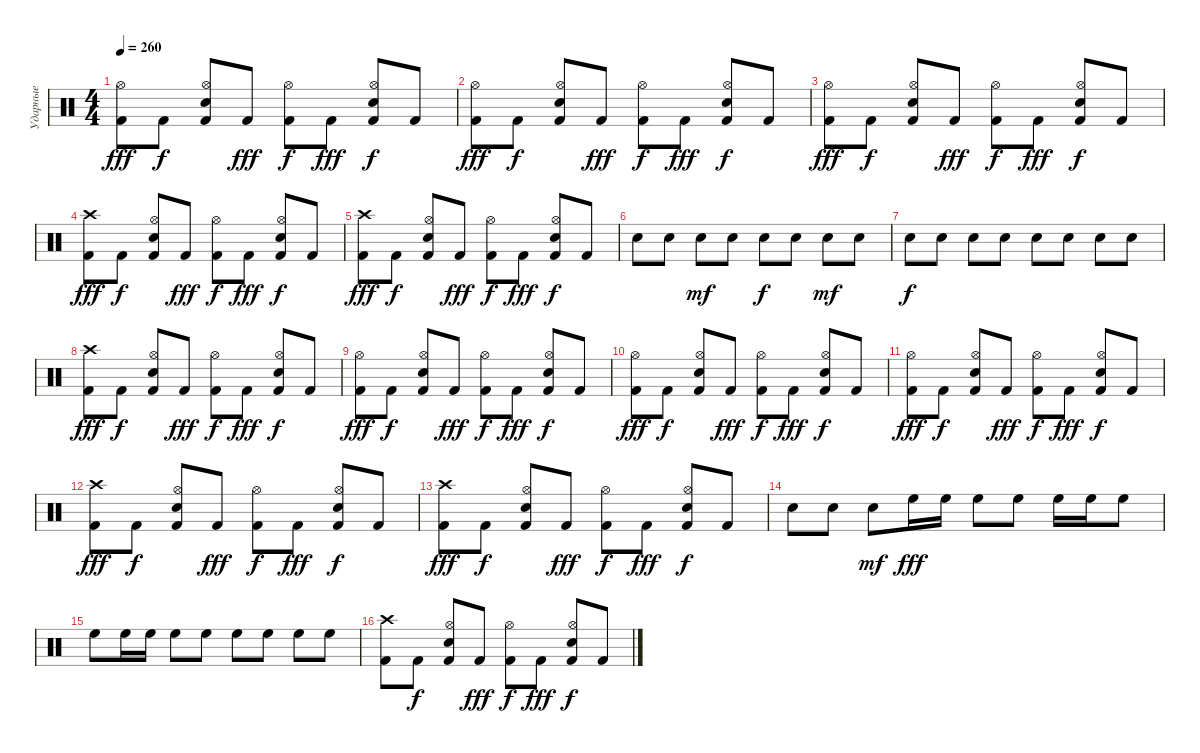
\track ("Ударные" "Ударные") {instrument percussion}
\staff {score}
\articulation defaults
\ts (4 4)
\tempo 260
\clef neutral
\ks c
("Kick (hit) 2" "Hi-Hat (open)").8{dy fff} "Kick (hit) 2".8{dy f} ("Kick (hit) 2" "Snare (hit) 2" "Hi-Hat (open)").8 "Kick (hit) 2".8{dy fff} ("Kick (hit) 2" "Hi-Hat (open)").8{dy f} "Kick (hit) 2".8{dy fff} ("Kick (hit) 2" "Snare (hit) 2" "Hi-Hat (open)").8{dy f} "Kick (hit) 2".8 |
("Kick (hit) 2" "Hi-Hat (open)").8{dy fff} "Kick (hit) 2".8{dy f} ("Kick (hit) 2" "Snare (hit) 2" "Hi-Hat (open)").8 "Kick (hit) 2".8{dy fff} ("Kick (hit) 2" "Hi-Hat (open)").8{dy f} "Kick (hit) 2".8{dy fff} ("Kick (hit) 2" "Snare (hit) 2" "Hi-Hat (open)").8{dy f} "Kick (hit) 2".8 |
("Kick (hit) 2" "Hi-Hat (open)").8{dy fff} "Kick (hit) 2".8{dy f} ("Kick (hit) 2" "Snare (hit) 2" "Hi-Hat (open)").8 "Kick (hit) 2".8{dy fff} ("Kick (hit) 2" "Hi-Hat (open)").8{dy f} "Kick (hit) 2".8{dy fff} ("Kick (hit) 2" "Snare (hit) 2" "Hi-Hat (open)").8{dy f} "Kick (hit) 2".8 |
("Kick (hit) 2" "Crash high (hit)").8{dy fff} "Kick (hit) 2".8{dy f} ("Kick (hit) 2" "Snare (hit) 2" "Hi-Hat (open)").8 "Kick (hit) 2".8{dy fff} ("Kick (hit) 2" "Hi-Hat (open)").8{dy f} "Kick (hit) 2".8{dy fff} ("Kick (hit) 2" "Snare (hit) 2" "Hi-Hat (open)").8{dy f} "Kick (hit) 2".8 |
("Kick (hit) 2" "Crash high (hit)").8{dy fff} "Kick (hit) 2".8{dy f} ("Kick (hit) 2" "Snare (hit) 2" "Hi-Hat (open)").8 "Kick (hit) 2".8{dy fff} ("Kick (hit) 2" "Hi-Hat (open)").8{dy f} "Kick (hit) 2".8{dy fff} ("Kick (hit) 2" "Snare (hit) 2" "Hi-Hat (open)").8{dy f} "Kick (hit) 2".8 |
"Snare (hit) 2".8 "Snare (hit) 2".8 "Snare (hit) 2".8{dy mf} "Snare (hit) 2".8 "Snare (hit) 2".8{dy f} "Snare (hit) 2".8 "Snare (hit) 2".8{dy mf} "Snare (hit) 2".8 |
"Snare (hit) 2".8{dy f} "Snare (hit) 2".8 "Snare (hit) 2".8 "Snare (hit) 2".8 "Snare (hit) 2".8 "Snare (hit) 2".8 "Snare (hit) 2".8 "Snare (hit) 2".8 |
("Kick (hit) 2" "Crash high (hit)").8{dy fff} "Kick (hit) 2".8{dy f} ("Kick (hit) 2" "Snare (hit) 2" "Hi-Hat (open)").8 "Kick (hit) 2".8{dy fff} ("Kick (hit) 2" "Hi-Hat (open)").8{dy f} "Kick (hit) 2".8{dy fff} ("Kick (hit) 2" "Snare (hit) 2" "Hi-Hat (open)").8{dy f} "Kick (hit) 2".8 |
("Kick (hit) 2" "Hi-Hat (open)").8{dy fff} "Kick (hit) 2".8{dy f} ("Kick (hit) 2" "Snare (hit) 2" "Hi-Hat (open)").8 "Kick (hit) 2".8{dy fff} ("Kick (hit) 2" "Hi-Hat (open)").8{dy f} "Kick (hit) 2".8{dy fff} ("Kick (hit) 2" "Snare (hit) 2" "Hi-Hat (open)").8{dy f} "Kick (hit) 2".8 |
("Kick (hit) 2" "Hi-Hat (open)").8{dy fff} "Kick (hit) 2".8{dy f} ("Kick (hit) 2" "Snare (hit) 2" "Hi-Hat (open)").8 "Kick (hit) 2".8{dy fff} ("Kick (hit) 2" "Hi-Hat (open)").8{dy f} "Kick (hit) 2".8{dy fff} ("Kick (hit) 2" "Snare (hit) 2" "Hi-Hat (open)").8{dy f} "Kick (hit) 2".8 |
("Kick (hit) 2" "Hi-Hat (open)").8{dy fff} "Kick (hit) 2".8{dy f} ("Kick (hit) 2" "Snare (hit) 2" "Hi-Hat (open)").8 "Kick (hit) 2".8{dy fff} ("Kick (hit) 2" "Hi-Hat (open)").8{dy f} "Kick (hit) 2".8{dy fff} ("Kick (hit) 2" "Snare (hit) 2" "Hi-Hat (open)").8{dy f} "Kick (hit) 2".8 |
("Kick (hit) 2" "Crash high (hit)").8{dy fff} "Kick (hit) 2".8{dy f} ("Kick (hit) 2" "Snare (hit) 2" "Hi-Hat (open)").8 "Kick (hit) 2".8{dy fff} ("Kick (hit) 2" "Hi-Hat (open)").8{dy f} "Kick (hit) 2".8{dy fff} ("Kick (hit) 2" "Snare (hit) 2" "Hi-Hat (open)").8{dy f} "Kick (hit) 2".8 |
("Kick (hit) 2" "Crash high (hit)").8{dy fff} "Kick (hit) 2".8{dy f} ("Kick (hit) 2" "Snare (hit) 2" "Hi-Hat (open)").8 "Kick (hit) 2".8{dy fff} ("Kick (hit) 2" "Hi-Hat (open)").8{dy f} "Kick (hit) 2".8{dy fff} ("Kick (hit) 2" "Snare (hit) 2" "Hi-Hat (open)").8{dy f} "Kick (hit) 2".8 |
"Snare (hit) 2".8 "Snare (hit) 2".8 "Snare (hit) 2".8{dy mf} "High Floor Tom (hit)".16{dy fff} "High Floor Tom (hit)".16 "High Floor Tom (hit)".8 "High Floor Tom (hit)".8 "High Floor Tom (hit)".16 "High Floor Tom (hit)".16 "High Floor Tom (hit)".8 |
"High Floor Tom (hit)".8 "High Floor Tom (hit)".16 "High Floor Tom (hit)".16 "High Floor Tom (hit)".8 "High Floor Tom (hit)".8 "High Floor Tom (hit)".8 "High Floor Tom (hit)".8 "High Floor Tom (hit)".8 "High Floor Tom (hit)".8 |
("Kick (hit) 2" "Crash high (hit)").8 "Kick (hit) 2".8{dy f} ("Kick (hit) 2" "Snare (hit) 2" "Hi-Hat (open)").8 "Kick (hit) 2".8{dy fff} ("Kick (hit) 2" "Hi-Hat (open)").8{dy f} "Kick (hit) 2".8{dy fff} ("Kick (hit) 2" "Snare (hit) 2" "Hi-Hat (open)").8{dy f} "Kick (hit) 2".8
